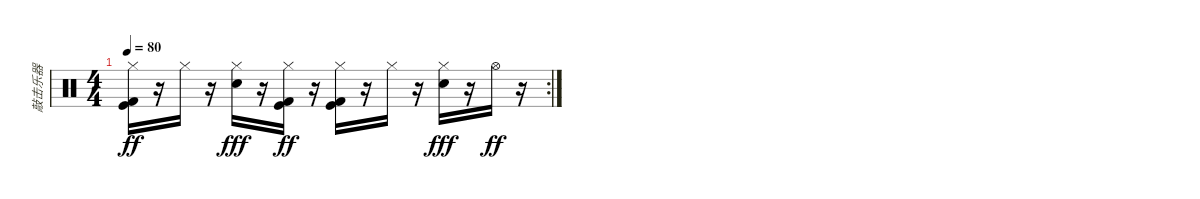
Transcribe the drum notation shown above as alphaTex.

\track ("敲击乐器" "敲击乐器") {instrument percussion}
\staff {score}
\articulation defaults
\rc 2
\ts (4 4)
\tempo 80
\clef neutral
\ks c
("Kick (hit)" "Kick (hit) 2" "Hi-Hat (closed)").16{dy ff} r.16 "Hi-Hat (closed)".16 r.16 ("Hi-Hat (closed)" "Electric Snare (hit)").16{dy fff} r.16 ("Kick (hit)" "Kick (hit) 2" "Hi-Hat (closed)").16{dy ff} r.16 ("Kick (hit)" "Kick (hit) 2" "Hi-Hat (closed)").16 r.16 "Hi-Hat (closed)".16 r.16 ("Hi-Hat (closed)" "Electric Snare (hit)").16{dy fff} r.16 "Hi-Hat (open)".16{dy ff} r.16
